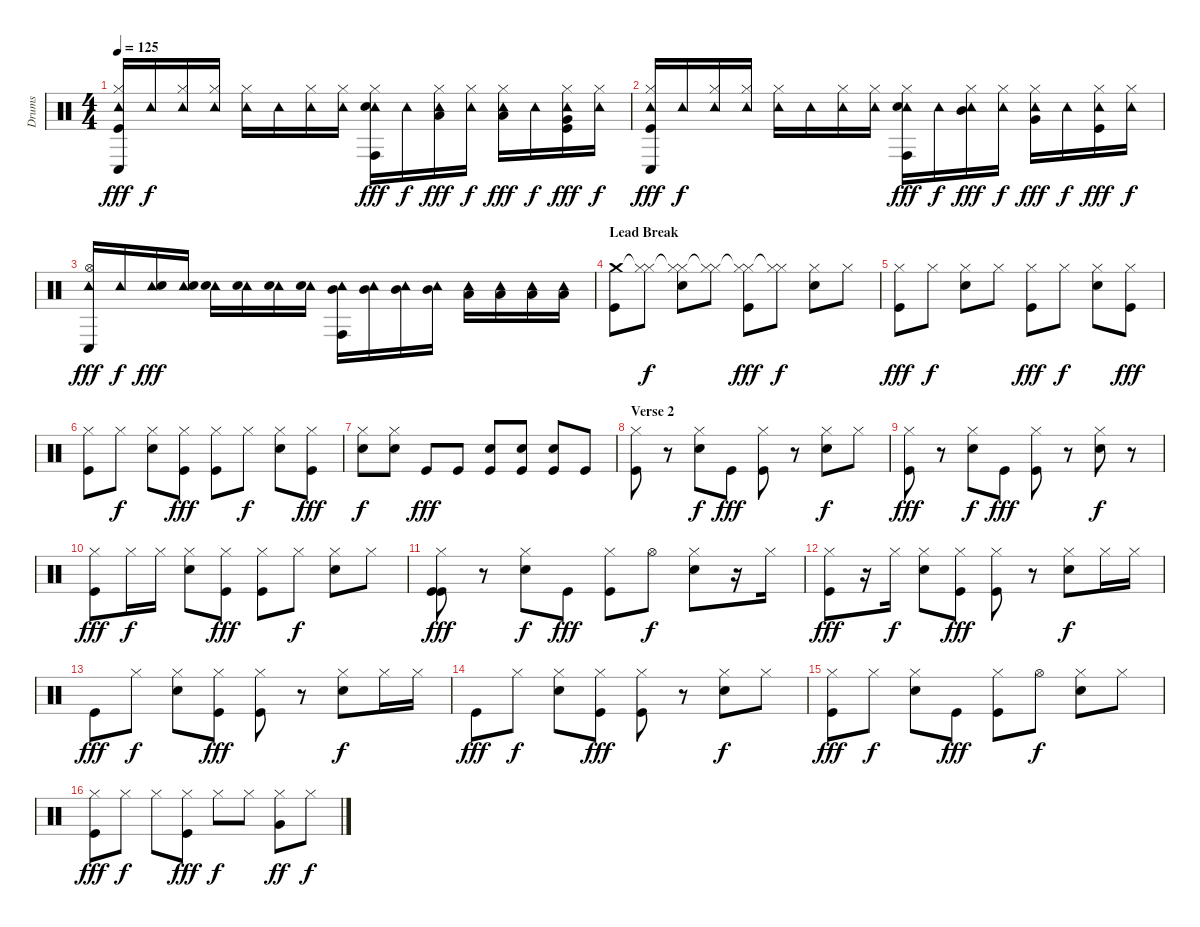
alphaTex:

\track ("Drums" "Drums") {instrument percussion}
\staff {score}
\articulation defaults
\ts (4 4)
\tempo 125
\clef neutral
\ks c
("Conga low (hit)" "Tambourine (hit)" "Hi-Hat (closed)" "Kick (hit)").16{dy fff} "Tambourine (hit)".16{dy f} ("Tambourine (hit)" "Hi-Hat (closed)").16 ("Tambourine (hit)" "Hi-Hat (closed)").16 ("Tambourine (hit)" "Hi-Hat (closed)").16 "Tambourine (hit)".16 ("Tambourine (hit)" "Hi-Hat (closed)").16 ("Tambourine (hit)" "Hi-Hat (closed)").16 ("Conga high (hit)" "Tambourine (hit)" "Hi-Hat (closed)" "Snare (hit) 2").16{dy fff} "Tambourine (hit)".16{dy f} ("Tambourine (hit)" "Hi-Hat (closed)" "Low Tom (hit)").16{dy fff} ("Tambourine (hit)" "Hi-Hat (closed)").16{dy f} ("Tambourine (hit)" "Hi-Hat (closed)" "Low Tom (hit)").16{dy fff} "Tambourine (hit)".16{dy f} ("Tambourine (hit)" "Hi-Hat (closed)" "Very Low Tom (hit)" "Kick (hit)").16{dy fff} ("Tambourine (hit)" "Hi-Hat (closed)").16{dy f} |
("Conga low (hit)" "Tambourine (hit)" "Hi-Hat (closed)" "Kick (hit)").16{dy fff} "Tambourine (hit)".16{dy f} ("Tambourine (hit)" "Hi-Hat (closed)").16 ("Tambourine (hit)" "Hi-Hat (closed)").16 ("Tambourine (hit)" "Hi-Hat (closed)").16 "Tambourine (hit)".16 ("Tambourine (hit)" "Hi-Hat (closed)").16 ("Tambourine (hit)" "Hi-Hat (closed)").16 ("Conga high (hit)" "Tambourine (hit)" "Hi-Hat (closed)" "Snare (hit) 2").16{dy fff} "Tambourine (hit)".16{dy f} ("Tambourine (hit)" "Hi-Hat (closed)" "Mid Tom (hit)").16{dy fff} ("Tambourine (hit)" "Hi-Hat (closed)").16{dy f} ("Tambourine (hit)" "Hi-Hat (closed)" "Very Low Tom (hit)").16{dy fff} "Tambourine (hit)".16{dy f} ("Tambourine (hit)" "Hi-Hat (closed)" "Kick (hit)").16{dy fff} ("Tambourine (hit)" "Hi-Hat (closed)").16{dy f} |
("Tambourine (hit)" "Conga low (hit)" "Hi-Hat (open)").16{dy fff} "Tambourine (hit)".16{dy f} ("Tambourine (hit)" "Electric Snare (hit)").16{dy fff} ("Tambourine (hit)" "Electric Snare (hit)").16 ("Tambourine (hit)" "Electric Snare (hit)").16 ("Tambourine (hit)" "Electric Snare (hit)").16 ("Tambourine (hit)" "Electric Snare (hit)").16 ("Tambourine (hit)" "Electric Snare (hit)").16 ("Tambourine (hit)" "Conga high (hit)" "Mid Tom (hit)").16 ("Tambourine (hit)" "Mid Tom (hit)").16 ("Tambourine (hit)" "Mid Tom (hit)").16 ("Tambourine (hit)" "Mid Tom (hit)").16 ("Tambourine (hit)" "Low Tom (hit)").16 ("Tambourine (hit)" "Low Tom (hit)").16 ("Tambourine (hit)" "Low Tom (hit)").16 ("Tambourine (hit)" "Low Tom (hit)").16 |
\section ("" "Lead Break")
("Crash medium (hit)" "Kick (hit)").8 ("Hi-Hat (closed)"{t} "Hi-Hat (closed)").8{dy f} ("Hi-Hat (closed)"{t} "Hi-Hat (closed)" "Snare (hit) 2").8 ("Hi-Hat (closed)"{t} "Hi-Hat (closed)").8 ("Hi-Hat (closed)"{t} "Hi-Hat (closed)" "Kick (hit)").8{dy fff} ("Hi-Hat (closed)"{t} "Hi-Hat (closed)").8{dy f} ("Hi-Hat (closed)" "Snare (hit) 2").8 "Hi-Hat (closed)".8 |
("Hi-Hat (closed)" "Kick (hit)").8{dy fff} "Hi-Hat (closed)".8{dy f} ("Hi-Hat (closed)" "Snare (hit) 2").8 "Hi-Hat (closed)".8 ("Hi-Hat (closed)" "Kick (hit)").8{dy fff} "Hi-Hat (closed)".8{dy f} ("Hi-Hat (closed)" "Snare (hit) 2").8 ("Hi-Hat (closed)" "Kick (hit)").8{dy fff} |
("Hi-Hat (closed)" "Kick (hit)").8 "Hi-Hat (closed)".8{dy f} ("Hi-Hat (closed)" "Snare (hit) 2").8 ("Hi-Hat (closed)" "Kick (hit)").8{dy fff} ("Hi-Hat (closed)" "Kick (hit)").8 "Hi-Hat (closed)".8{dy f} ("Hi-Hat (closed)" "Snare (hit) 2").8 ("Hi-Hat (closed)" "Kick (hit)").8{dy fff} |
("Hi-Hat (closed)" "Electric Snare (hit)").8{dy f} ("Hi-Hat (closed)" "Electric Snare (hit)").8 "Kick (hit)".8{dy fff} "Kick (hit)".8 ("Snare (hit) 2" "Kick (hit)").8{balance 6} ("Snare (hit) 2" "Kick (hit)").8{balance 4} ("Snare (hit) 2" "Kick (hit)").8{balance 2} "Kick (hit)".8 |
\section ("" "Verse 2")
("Hi-Hat (closed)" "Kick (hit)").8 r.8 ("Hi-Hat (closed)" "Snare (hit) 2").8{dy f} "Kick (hit)".8{dy fff} ("Hi-Hat (closed)" "Kick (hit)").8 r.8 ("Hi-Hat (closed)" "Snare (hit) 2").8{dy f} "Hi-Hat (closed)".8 |
("Hi-Hat (closed)" "Kick (hit)").8{dy fff} r.8 ("Hi-Hat (closed)" "Snare (hit) 2").8{dy f} "Kick (hit)".8{dy fff} ("Hi-Hat (closed)" "Kick (hit)").8 r.8 ("Hi-Hat (closed)" "Snare (hit) 2").8{dy f} r.8 |
("Hi-Hat (closed)" "Kick (hit)").8{dy fff} "Hi-Hat (closed)".16{dy f} "Hi-Hat (closed)".16 ("Hi-Hat (closed)" "Snare (hit) 2").8 ("Hi-Hat (closed)" "Kick (hit)").8{dy fff} ("Hi-Hat (closed)" "Kick (hit)").8 "Hi-Hat (closed)".8{dy f} ("Hi-Hat (closed)" "Snare (hit) 2").8 "Hi-Hat (closed)".8 |
("Hi-Hat (closed)" "Kick (hit)" "Kick (hit)").8{dy fff} r.8 ("Hi-Hat (closed)" "Snare (hit) 2").8{dy f} "Kick (hit)".8{dy fff} ("Hi-Hat (closed)" "Kick (hit)").8 "Hi-Hat (open)".8{dy f} ("Hi-Hat (closed)" "Snare (hit) 2").8 r.16 "Hi-Hat (closed)".16 |
("Hi-Hat (closed)" "Kick (hit)").8{dy fff} r.16 "Hi-Hat (closed)".16{dy f} ("Hi-Hat (closed)" "Snare (hit) 2").8 ("Hi-Hat (closed)" "Kick (hit)").8{dy fff} ("Hi-Hat (closed)" "Kick (hit)").8 r.8 ("Hi-Hat (closed)" "Snare (hit) 2").8{dy f} "Hi-Hat (closed)".16 "Hi-Hat (closed)".16 |
"Kick (hit)".8{dy fff} "Hi-Hat (closed)".8{dy f} ("Hi-Hat (closed)" "Snare (hit) 2").8 ("Hi-Hat (closed)" "Kick (hit)").8{dy fff} ("Hi-Hat (closed)" "Kick (hit)").8 r.8 ("Hi-Hat (closed)" "Snare (hit) 2").8{dy f} "Hi-Hat (closed)".16 "Hi-Hat (closed)".16 |
"Kick (hit)".8{dy fff} "Hi-Hat (closed)".8{dy f} ("Hi-Hat (closed)" "Snare (hit) 2").8 ("Hi-Hat (closed)" "Kick (hit)").8{dy fff} ("Hi-Hat (closed)" "Kick (hit)").8 r.8 ("Hi-Hat (closed)" "Snare (hit) 2").8{dy f} "Hi-Hat (closed)".8 |
("Hi-Hat (closed)" "Kick (hit)").8{dy fff} "Hi-Hat (closed)".8{dy f} ("Hi-Hat (closed)" "Snare (hit) 2").8 "Kick (hit)".8{dy fff} ("Hi-Hat (closed)" "Kick (hit)").8 "Hi-Hat (open)".8{dy f} ("Hi-Hat (closed)" "Snare (hit) 2").8 "Hi-Hat (closed)".8 |
("Hi-Hat (closed)" "Kick (hit)").8{dy fff} "Hi-Hat (closed)".8{dy f} "Hi-Hat (closed)".8 ("Hi-Hat (closed)" "Kick (hit)").8{dy fff} "Hi-Hat (closed)".8{dy f} "Hi-Hat (closed)".8 ("Hi-Hat (closed)" "Very Low Tom (hit)").8{dy ff} "Hi-Hat (closed)".8{dy f}
